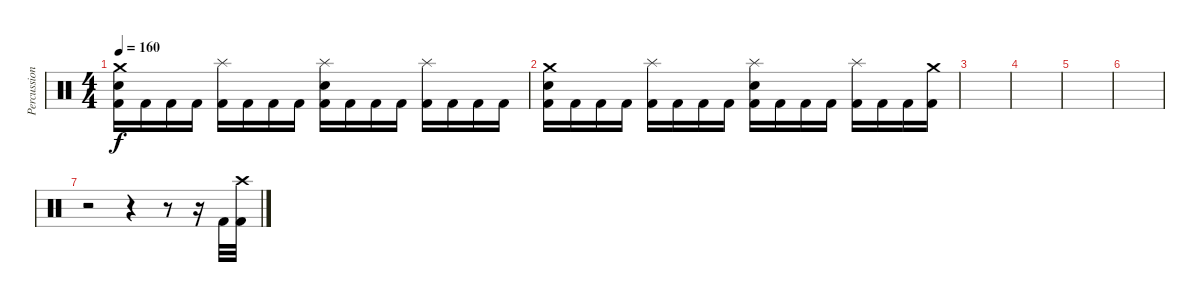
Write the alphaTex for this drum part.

\track ("Percussion" "Percussion") {instrument percussion}
\staff {score}
\articulation defaults
\ts (4 4)
\tempo 160
\clef neutral
\ks c
("Crash medium (hit)" "Snare (hit) 2" "Kick (hit) 2").16{dy f} "Kick (hit) 2".16 "Kick (hit) 2".16 "Kick (hit) 2".16 ("Splash (hit)" "Kick (hit) 2").16 "Kick (hit) 2".16 "Kick (hit) 2".16 "Kick (hit) 2".16 ("Splash (hit)" "Snare (hit) 2" "Kick (hit) 2").16 "Kick (hit) 2".16 "Kick (hit) 2".16 "Kick (hit) 2".16 ("Splash (hit)" "Kick (hit) 2").16 "Kick (hit) 2".16 "Kick (hit) 2".16 "Kick (hit) 2".16 |
("Crash medium (hit)" "Snare (hit) 2" "Kick (hit) 2").16 "Kick (hit) 2".16 "Kick (hit) 2".16 "Kick (hit) 2".16 ("Splash (hit)" "Kick (hit) 2").16 "Kick (hit) 2".16 "Kick (hit) 2".16 "Kick (hit) 2".16 ("Splash (hit)" "Snare (hit) 2" "Kick (hit) 2").16 "Kick (hit) 2".16 "Kick (hit) 2".16 "Kick (hit) 2".16 ("Splash (hit)" "Kick (hit) 2").16 "Kick (hit) 2".16 "Kick (hit) 2".16 ("Crash medium (hit)" "Kick (hit) 2").16 |
|
|
|
|
r.2 r.4 r.8 r.16 "Kick (hit) 2".32 ("Crash high (hit)" "Kick (hit) 2").32
